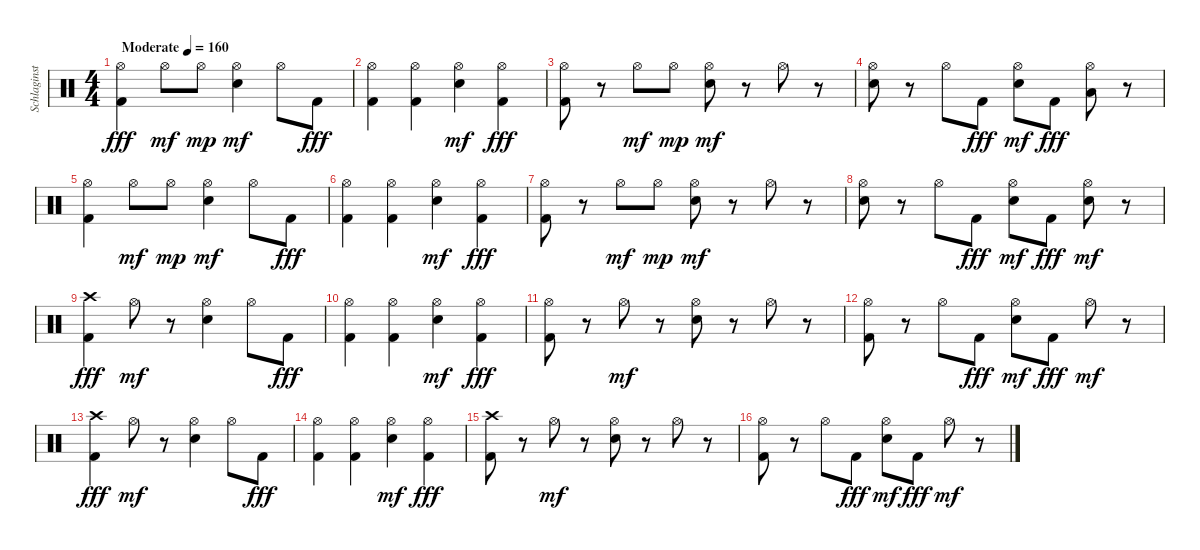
\track ("Schlaginstrumente - Auswahl" "Schlaginst") {instrument percussion}
\staff {score}
\articulation defaults
\ts (4 4)
\tempo (160 "Moderate")
\clef neutral
\ks c
("Hi-Hat (open)" "Kick (hit) 2").4{dy fff} "Hi-Hat (open)".8{dy mf} "Hi-Hat (open)".8{dy mp} ("Hi-Hat (open)" "Electric Snare (hit)").4{dy mf} "Hi-Hat (open)".8 "Kick (hit) 2".8{dy fff} |
("Hi-Hat (open)" "Kick (hit) 2").4 ("Hi-Hat (open)" "Kick (hit) 2").4 ("Hi-Hat (open)" "Electric Snare (hit)").4{dy mf} ("Hi-Hat (open)" "Kick (hit) 2").4{dy fff} |
("Hi-Hat (open)" "Kick (hit) 2").8 r.8 "Hi-Hat (open)".8{dy mf} "Hi-Hat (open)".8{dy mp} ("Hi-Hat (open)" "Electric Snare (hit)").8{dy mf} r.8 "Hi-Hat (open)".8 r.8 |
("Hi-Hat (open)" "Electric Snare (hit)").8 r.8 "Hi-Hat (open)".8 "Kick (hit) 2".8{dy fff} ("Hi-Hat (open)" "Electric Snare (hit)").8{dy mf} "Kick (hit) 2".8{dy fff} ("Hi-Hat (open)" "Low Floor Tom (hit)").8 r.8 |
("Hi-Hat (open)" "Kick (hit) 2").4 "Hi-Hat (open)".8{dy mf} "Hi-Hat (open)".8{dy mp} ("Hi-Hat (open)" "Electric Snare (hit)").4{dy mf} "Hi-Hat (open)".8 "Kick (hit) 2".8{dy fff} |
("Hi-Hat (open)" "Kick (hit) 2").4 ("Hi-Hat (open)" "Kick (hit) 2").4 ("Hi-Hat (open)" "Electric Snare (hit)").4{dy mf} ("Hi-Hat (open)" "Kick (hit) 2").4{dy fff} |
("Hi-Hat (open)" "Kick (hit) 2").8 r.8 "Hi-Hat (open)".8{dy mf} "Hi-Hat (open)".8{dy mp} ("Hi-Hat (open)" "Electric Snare (hit)").8{dy mf} r.8 "Hi-Hat (open)".8 r.8 |
("Hi-Hat (open)" "Electric Snare (hit)").8 r.8 "Hi-Hat (open)".8 "Kick (hit) 2".8{dy fff} ("Hi-Hat (open)" "Electric Snare (hit)").8{dy mf} "Kick (hit) 2".8{dy fff} ("Hi-Hat (open)" "Electric Snare (hit)").8{dy mf} r.8 |
("Crash high (hit)" "Kick (hit) 2").4{dy fff} "Hi-Hat (open)".8{dy mf} r.8 ("Hi-Hat (open)" "Electric Snare (hit)").4 "Hi-Hat (open)".8 "Kick (hit) 2".8{dy fff} |
("Hi-Hat (open)" "Kick (hit) 2").4 ("Hi-Hat (open)" "Kick (hit) 2").4 ("Hi-Hat (open)" "Electric Snare (hit)").4{dy mf} ("Hi-Hat (open)" "Kick (hit) 2").4{dy fff} |
("Hi-Hat (open)" "Kick (hit) 2").8 r.8 "Hi-Hat (open)".8{dy mf} r.8 ("Hi-Hat (open)" "Electric Snare (hit)").8 r.8 "Hi-Hat (open)".8 r.8 |
("Hi-Hat (open)" "Kick (hit) 2").8 r.8 "Hi-Hat (open)".8 "Kick (hit) 2".8{dy fff} ("Hi-Hat (open)" "Electric Snare (hit)").8{dy mf} "Kick (hit) 2".8{dy fff} "Hi-Hat (open)".8{dy mf} r.8 |
("Crash high (hit)" "Kick (hit) 2").4{dy fff} "Hi-Hat (open)".8{dy mf} r.8 ("Hi-Hat (open)" "Electric Snare (hit)").4 "Hi-Hat (open)".8 "Kick (hit) 2".8{dy fff} |
("Hi-Hat (open)" "Kick (hit) 2").4 ("Hi-Hat (open)" "Kick (hit) 2").4 ("Hi-Hat (open)" "Electric Snare (hit)").4{dy mf} ("Hi-Hat (open)" "Kick (hit) 2").4{dy fff} |
("Crash high (hit)" "Kick (hit) 2").8 r.8 "Hi-Hat (open)".8{dy mf} r.8 ("Hi-Hat (open)" "Electric Snare (hit)").8 r.8 "Hi-Hat (open)".8 r.8 |
("Hi-Hat (open)" "Kick (hit) 2").8 r.8 "Hi-Hat (open)".8 "Kick (hit) 2".8{dy fff} ("Hi-Hat (open)" "Electric Snare (hit)").8{dy mf} "Kick (hit) 2".8{dy fff} "Hi-Hat (open)".8{dy mf} r.8
